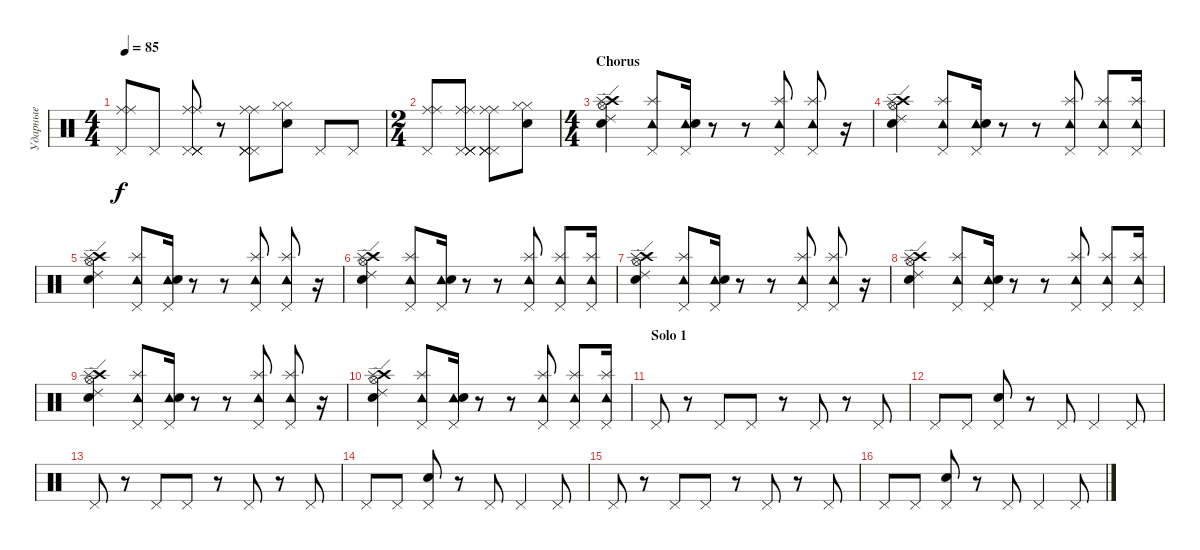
\track ("Ударные" "Ударные") {instrument percussion}
\staff {score}
\articulation defaults
\ts (4 4)
\tempo 85
\clef neutral
\ks c
("Pedal Hi-Hat (hit)" "Ride (middle)" "Ride (middle)").8{dy f} "Pedal Hi-Hat (hit)".8 ("Ride (middle)" "Pedal Hi-Hat (hit)" "Pedal Hi-Hat (hit)" "Pedal Hi-Hat (hit)" "Pedal Hi-Hat (hit)" "Ride (middle)").8 r.8 ("Ride (middle)" "Pedal Hi-Hat (hit)" "Pedal Hi-Hat (hit)" "Pedal Hi-Hat (hit)" "Pedal Hi-Hat (hit)" "Ride (middle)").8 ("Hi-Hat (closed)" "Electric Snare (hit)" "Hi-Hat (closed)").8 "Pedal Hi-Hat (hit)".8 "Pedal Hi-Hat (hit)".8 |
\ts (2 4)
("Pedal Hi-Hat (hit)" "Ride (middle)" "Ride (middle)").8 ("Ride (middle)" "Pedal Hi-Hat (hit)" "Pedal Hi-Hat (hit)" "Pedal Hi-Hat (hit)" "Pedal Hi-Hat (hit)" "Ride (middle)").8 ("Ride (middle)" "Pedal Hi-Hat (hit)" "Pedal Hi-Hat (hit)" "Pedal Hi-Hat (hit)" "Pedal Hi-Hat (hit)" "Ride (middle)").8 ("Hi-Hat (closed)" "Electric Snare (hit)" "Hi-Hat (closed)").8 |
\ts (4 4)
\section ("" "Chorus")
("Crash high (hit)" "Ride (edge) 2" "Electric Snare (hit)" "Hi-Hat (open)" "Splash (hit)").4 ("Pedal Hi-Hat (hit)" "Tambourine (hit)" "Splash (hit)").8 ("Pedal Hi-Hat (hit)" "Tambourine (hit)" "Electric Snare (hit)").16 r.8 r.8 ("Pedal Hi-Hat (hit)" "Tambourine (hit)" "Splash (hit)").8 ("Pedal Hi-Hat (hit)" "Tambourine (hit)" "Splash (hit)").8 r.16 |
("Crash high (hit)" "Ride (edge) 2" "Electric Snare (hit)" "Hi-Hat (open)" "Splash (hit)").4 ("Pedal Hi-Hat (hit)" "Tambourine (hit)" "Splash (hit)").8 ("Pedal Hi-Hat (hit)" "Tambourine (hit)" "Electric Snare (hit)").16 r.8 r.8 ("Pedal Hi-Hat (hit)" "Tambourine (hit)" "Splash (hit)").8 ("Pedal Hi-Hat (hit)" "Tambourine (hit)" "Splash (hit)").8 ("Pedal Hi-Hat (hit)" "Tambourine (hit)" "Splash (hit)").16 |
("Crash high (hit)" "Ride (edge) 2" "Electric Snare (hit)" "Hi-Hat (open)" "Splash (hit)").4 ("Pedal Hi-Hat (hit)" "Tambourine (hit)" "Splash (hit)").8 ("Pedal Hi-Hat (hit)" "Tambourine (hit)" "Electric Snare (hit)").16 r.8 r.8 ("Pedal Hi-Hat (hit)" "Tambourine (hit)" "Splash (hit)").8 ("Pedal Hi-Hat (hit)" "Tambourine (hit)" "Splash (hit)").8 r.16 |
("Crash high (hit)" "Ride (edge) 2" "Electric Snare (hit)" "Hi-Hat (open)" "Splash (hit)").4 ("Pedal Hi-Hat (hit)" "Tambourine (hit)" "Splash (hit)").8 ("Pedal Hi-Hat (hit)" "Tambourine (hit)" "Electric Snare (hit)").16 r.8 r.8 ("Pedal Hi-Hat (hit)" "Tambourine (hit)" "Splash (hit)").8 ("Pedal Hi-Hat (hit)" "Tambourine (hit)" "Splash (hit)").8 ("Pedal Hi-Hat (hit)" "Tambourine (hit)" "Splash (hit)").16 |
("Crash high (hit)" "Ride (edge) 2" "Electric Snare (hit)" "Hi-Hat (open)" "Splash (hit)").4 ("Pedal Hi-Hat (hit)" "Tambourine (hit)" "Splash (hit)").8 ("Pedal Hi-Hat (hit)" "Tambourine (hit)" "Electric Snare (hit)").16 r.8 r.8 ("Pedal Hi-Hat (hit)" "Tambourine (hit)" "Splash (hit)").8 ("Pedal Hi-Hat (hit)" "Tambourine (hit)" "Splash (hit)").8 r.16 |
("Crash high (hit)" "Ride (edge) 2" "Electric Snare (hit)" "Hi-Hat (open)" "Splash (hit)").4 ("Pedal Hi-Hat (hit)" "Tambourine (hit)" "Splash (hit)").8 ("Pedal Hi-Hat (hit)" "Tambourine (hit)" "Electric Snare (hit)").16 r.8 r.8 ("Pedal Hi-Hat (hit)" "Tambourine (hit)" "Splash (hit)").8 ("Pedal Hi-Hat (hit)" "Tambourine (hit)" "Splash (hit)").8 ("Pedal Hi-Hat (hit)" "Tambourine (hit)" "Splash (hit)").16 |
("Crash high (hit)" "Ride (edge) 2" "Electric Snare (hit)" "Hi-Hat (open)" "Splash (hit)").4 ("Pedal Hi-Hat (hit)" "Tambourine (hit)" "Splash (hit)").8 ("Pedal Hi-Hat (hit)" "Tambourine (hit)" "Electric Snare (hit)").16 r.8 r.8 ("Pedal Hi-Hat (hit)" "Tambourine (hit)" "Splash (hit)").8 ("Pedal Hi-Hat (hit)" "Tambourine (hit)" "Splash (hit)").8 r.16 |
("Crash high (hit)" "Ride (edge) 2" "Electric Snare (hit)" "Hi-Hat (open)" "Splash (hit)").4 ("Pedal Hi-Hat (hit)" "Tambourine (hit)" "Splash (hit)").8 ("Pedal Hi-Hat (hit)" "Tambourine (hit)" "Electric Snare (hit)").16 r.8 r.8 ("Pedal Hi-Hat (hit)" "Tambourine (hit)" "Splash (hit)").8 ("Pedal Hi-Hat (hit)" "Tambourine (hit)" "Splash (hit)").8 ("Pedal Hi-Hat (hit)" "Tambourine (hit)" "Splash (hit)").16 |
\section ("" "Solo 1")
"Pedal Hi-Hat (hit)".8 r.8 "Pedal Hi-Hat (hit)".8 "Pedal Hi-Hat (hit)".8 r.8 "Pedal Hi-Hat (hit)".8 r.8 "Pedal Hi-Hat (hit)".8 |
"Pedal Hi-Hat (hit)".8 "Pedal Hi-Hat (hit)".8 ("Pedal Hi-Hat (hit)" "Electric Snare (hit)").8 r.8 "Pedal Hi-Hat (hit)".8 "Pedal Hi-Hat (hit)".4 "Pedal Hi-Hat (hit)".8 |
"Pedal Hi-Hat (hit)".8 r.8 "Pedal Hi-Hat (hit)".8 "Pedal Hi-Hat (hit)".8 r.8 "Pedal Hi-Hat (hit)".8 r.8 "Pedal Hi-Hat (hit)".8 |
"Pedal Hi-Hat (hit)".8 "Pedal Hi-Hat (hit)".8 ("Pedal Hi-Hat (hit)" "Electric Snare (hit)").8 r.8 "Pedal Hi-Hat (hit)".8 "Pedal Hi-Hat (hit)".4 "Pedal Hi-Hat (hit)".8 |
"Pedal Hi-Hat (hit)".8 r.8 "Pedal Hi-Hat (hit)".8 "Pedal Hi-Hat (hit)".8 r.8 "Pedal Hi-Hat (hit)".8 r.8 "Pedal Hi-Hat (hit)".8 |
"Pedal Hi-Hat (hit)".8 "Pedal Hi-Hat (hit)".8 ("Pedal Hi-Hat (hit)" "Electric Snare (hit)").8 r.8 "Pedal Hi-Hat (hit)".8 "Pedal Hi-Hat (hit)".4 "Pedal Hi-Hat (hit)".8
